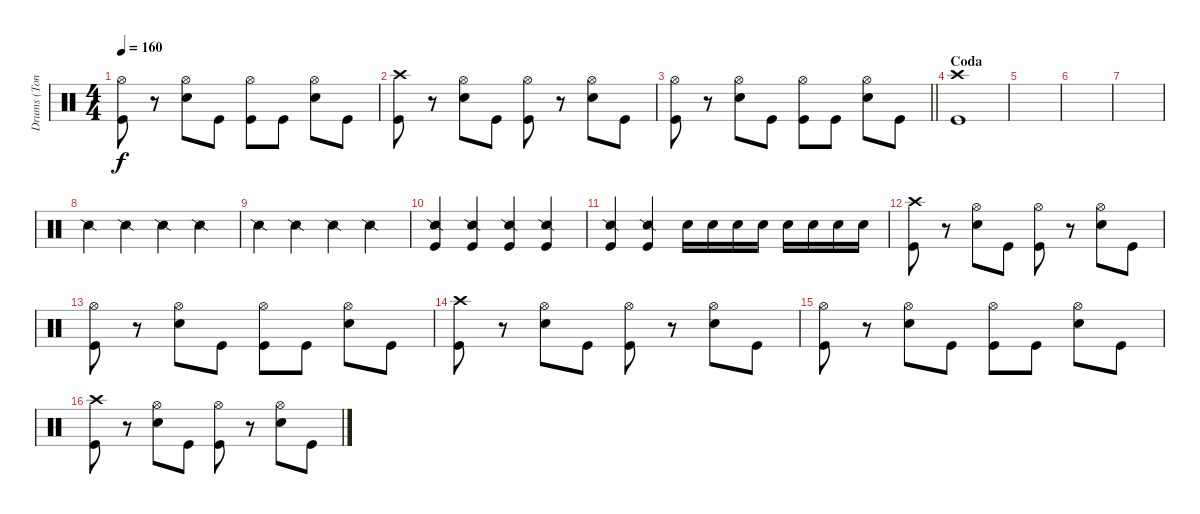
\track ("Drums (Tony)" "Drums (Ton") {instrument percussion}
\staff {score}
\articulation defaults
\ts (4 4)
\tempo 160
\clef neutral
\ks c
("Hi-Hat (open)" "Kick (hit)").8{dy f} r.8 ("Hi-Hat (open)" "Snare (hit) 2").8 "Kick (hit)".8 ("Hi-Hat (open)" "Kick (hit)").8 "Kick (hit)".8 ("Hi-Hat (open)" "Snare (hit) 2").8 "Kick (hit)".8 |
("Crash high (hit)" "Kick (hit)").8 r.8 ("Hi-Hat (open)" "Snare (hit) 2").8 "Kick (hit)".8 ("Hi-Hat (open)" "Kick (hit)").8 r.8 ("Hi-Hat (open)" "Snare (hit) 2").8 "Kick (hit)".8 |
\barLineRight lightlight
("Hi-Hat (open)" "Kick (hit)").8 r.8 ("Hi-Hat (open)" "Snare (hit) 2").8 "Kick (hit)".8 ("Hi-Hat (open)" "Kick (hit)").8 "Kick (hit)".8 ("Hi-Hat (open)" "Snare (hit) 2").8 "Kick (hit)".8 |
\section ("" "Coda")
("Crash high (hit)" "Kick (hit)").1 |
|
|
|
"Snare (side stick) 2".4 "Snare (side stick) 2".4 "Snare (side stick) 2".4 "Snare (side stick) 2".4 |
"Snare (side stick) 2".4 "Snare (side stick) 2".4 "Snare (side stick) 2".4 "Snare (side stick) 2".4 |
("Snare (side stick) 2" "Kick (hit)").4 ("Snare (side stick) 2" "Kick (hit)").4 ("Snare (side stick) 2" "Kick (hit)").4 ("Snare (side stick) 2" "Kick (hit)").4 |
("Snare (side stick) 2" "Kick (hit)").4 ("Snare (side stick) 2" "Kick (hit)").4 "Snare (hit) 2".16 "Snare (hit) 2".16 "Snare (hit) 2".16 "Snare (hit) 2".16 "Snare (hit) 2".16 "Snare (hit) 2".16 "Snare (hit) 2".16 "Snare (hit) 2".16 |
("Crash high (hit)" "Kick (hit)").8 r.8 ("Hi-Hat (open)" "Snare (hit) 2").8 "Kick (hit)".8 ("Hi-Hat (open)" "Kick (hit)").8 r.8 ("Hi-Hat (open)" "Snare (hit) 2").8 "Kick (hit)".8 |
("Hi-Hat (open)" "Kick (hit)").8 r.8 ("Hi-Hat (open)" "Snare (hit) 2").8 "Kick (hit)".8 ("Hi-Hat (open)" "Kick (hit)").8 "Kick (hit)".8 ("Hi-Hat (open)" "Snare (hit) 2").8 "Kick (hit)".8 |
("Crash high (hit)" "Kick (hit)").8 r.8 ("Hi-Hat (open)" "Snare (hit) 2").8 "Kick (hit)".8 ("Hi-Hat (open)" "Kick (hit)").8 r.8 ("Hi-Hat (open)" "Snare (hit) 2").8 "Kick (hit)".8 |
("Hi-Hat (open)" "Kick (hit)").8 r.8 ("Hi-Hat (open)" "Snare (hit) 2").8 "Kick (hit)".8 ("Hi-Hat (open)" "Kick (hit)").8 "Kick (hit)".8 ("Hi-Hat (open)" "Snare (hit) 2").8 "Kick (hit)".8 |
("Crash high (hit)" "Kick (hit)").8 r.8 ("Hi-Hat (open)" "Snare (hit) 2").8 "Kick (hit)".8 ("Hi-Hat (open)" "Kick (hit)").8 r.8 ("Hi-Hat (open)" "Snare (hit) 2").8 "Kick (hit)".8
